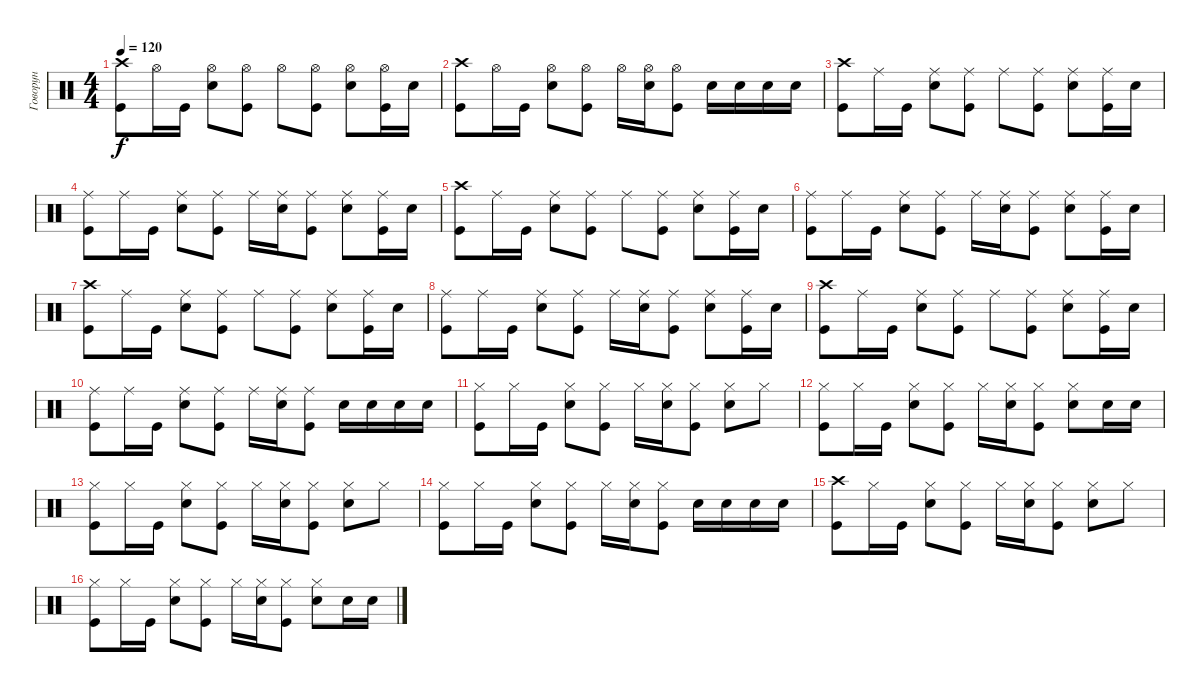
\track ("Говорун" "Говорун") {instrument percussion}
\staff {score}
\articulation defaults
\ts (4 4)
\tempo 120
\clef neutral
\ks c
("Crash high (hit)" "Kick (hit)").8{dy f} "Hi-Hat (open)".16 "Kick (hit)".16 ("Hi-Hat (open)" "Snare (hit) 2").8 ("Hi-Hat (open)" "Kick (hit)").8 "Hi-Hat (open)".8 ("Hi-Hat (open)" "Kick (hit)").8 ("Hi-Hat (open)" "Snare (hit) 2").8 ("Hi-Hat (open)" "Kick (hit)").16 "Snare (hit) 2".16 |
("Crash high (hit)" "Kick (hit)").8 "Hi-Hat (open)".16 "Kick (hit)".16 ("Hi-Hat (open)" "Snare (hit) 2").8 ("Hi-Hat (open)" "Kick (hit)").8 "Hi-Hat (open)".16 ("Hi-Hat (open)" "Snare (hit) 2").16 ("Hi-Hat (open)" "Kick (hit)").8 "Snare (hit) 2".16 "Snare (hit) 2".16 "Snare (hit) 2".16 "Snare (hit) 2".16 |
("Crash high (hit)" "Kick (hit)").8 "Ride (middle)".16 "Kick (hit)".16 ("Ride (middle)" "Snare (hit) 2").8 ("Ride (middle)" "Kick (hit)").8 "Ride (middle)".8 ("Ride (middle)" "Kick (hit)").8 ("Ride (middle)" "Snare (hit) 2").8 ("Ride (middle)" "Kick (hit)").16 "Snare (hit) 2".16 |
("Ride (middle)" "Kick (hit)").8 "Ride (middle)".16 "Kick (hit)".16 ("Ride (middle)" "Snare (hit) 2").8 ("Ride (middle)" "Kick (hit)").8 "Ride (middle)".16 ("Ride (middle)" "Snare (hit) 2").16 ("Ride (middle)" "Kick (hit)").8 ("Ride (middle)" "Snare (hit) 2").8 ("Ride (middle)" "Kick (hit)").16 "Snare (hit) 2".16 |
("Crash high (hit)" "Kick (hit)").8 "Ride (middle)".16 "Kick (hit)".16 ("Ride (middle)" "Snare (hit) 2").8 ("Ride (middle)" "Kick (hit)").8 "Ride (middle)".8 ("Ride (middle)" "Kick (hit)").8 ("Ride (middle)" "Snare (hit) 2").8 ("Ride (middle)" "Kick (hit)").16 "Snare (hit) 2".16 |
("Ride (middle)" "Kick (hit)").8 "Ride (middle)".16 "Kick (hit)".16 ("Ride (middle)" "Snare (hit) 2").8 ("Ride (middle)" "Kick (hit)").8 "Ride (middle)".16 ("Ride (middle)" "Snare (hit) 2").16 ("Ride (middle)" "Kick (hit)").8 ("Ride (middle)" "Snare (hit) 2").8 ("Ride (middle)" "Kick (hit)").16 "Snare (hit) 2".16 |
("Crash high (hit)" "Kick (hit)").8 "Ride (middle)".16 "Kick (hit)".16 ("Ride (middle)" "Snare (hit) 2").8 ("Ride (middle)" "Kick (hit)").8 "Ride (middle)".8 ("Ride (middle)" "Kick (hit)").8 ("Ride (middle)" "Snare (hit) 2").8 ("Ride (middle)" "Kick (hit)").16 "Snare (hit) 2".16 |
("Ride (middle)" "Kick (hit)").8 "Ride (middle)".16 "Kick (hit)".16 ("Ride (middle)" "Snare (hit) 2").8 ("Ride (middle)" "Kick (hit)").8 "Ride (middle)".16 ("Ride (middle)" "Snare (hit) 2").16 ("Ride (middle)" "Kick (hit)").8 ("Ride (middle)" "Snare (hit) 2").8 ("Ride (middle)" "Kick (hit)").16 "Snare (hit) 2".16 |
("Crash high (hit)" "Kick (hit)").8 "Ride (middle)".16 "Kick (hit)".16 ("Ride (middle)" "Snare (hit) 2").8 ("Ride (middle)" "Kick (hit)").8 "Ride (middle)".8 ("Ride (middle)" "Kick (hit)").8 ("Ride (middle)" "Snare (hit) 2").8 ("Ride (middle)" "Kick (hit)").16 "Snare (hit) 2".16 |
("Ride (middle)" "Kick (hit)").8 "Ride (middle)".16 "Kick (hit)".16 ("Ride (middle)" "Snare (hit) 2").8 ("Ride (middle)" "Kick (hit)").8 "Ride (middle)".16 ("Ride (middle)" "Snare (hit) 2").16 ("Ride (middle)" "Kick (hit)").8 "Snare (hit) 2".16 "Snare (hit) 2".16 "Snare (hit) 2".16 "Snare (hit) 2".16 |
("Hi-Hat (closed)" "Kick (hit)").8 "Hi-Hat (closed)".16 "Kick (hit)".16 ("Hi-Hat (closed)" "Snare (hit) 2").8 ("Hi-Hat (closed)" "Kick (hit)").8 "Hi-Hat (closed)".16 ("Hi-Hat (closed)" "Snare (hit) 2").16 ("Hi-Hat (closed)" "Kick (hit)").8 ("Hi-Hat (closed)" "Snare (hit) 2").8 "Hi-Hat (closed)".8 |
("Hi-Hat (closed)" "Kick (hit)").8 "Hi-Hat (closed)".16 "Kick (hit)".16 ("Hi-Hat (closed)" "Snare (hit) 2").8 ("Hi-Hat (closed)" "Kick (hit)").8 "Hi-Hat (closed)".16 ("Hi-Hat (closed)" "Snare (hit) 2").16 ("Hi-Hat (closed)" "Kick (hit)").8 ("Hi-Hat (closed)" "Snare (hit) 2").8 "Snare (hit) 2".16 "Snare (hit) 2".16 |
("Hi-Hat (closed)" "Kick (hit)").8 "Hi-Hat (closed)".16 "Kick (hit)".16 ("Hi-Hat (closed)" "Snare (hit) 2").8 ("Hi-Hat (closed)" "Kick (hit)").8 "Hi-Hat (closed)".16 ("Hi-Hat (closed)" "Snare (hit) 2").16 ("Hi-Hat (closed)" "Kick (hit)").8 ("Hi-Hat (closed)" "Snare (hit) 2").8 "Hi-Hat (closed)".8 |
("Hi-Hat (closed)" "Kick (hit)").8 "Hi-Hat (closed)".16 "Kick (hit)".16 ("Hi-Hat (closed)" "Snare (hit) 2").8 ("Hi-Hat (closed)" "Kick (hit)").8 "Hi-Hat (closed)".16 ("Hi-Hat (closed)" "Snare (hit) 2").16 ("Hi-Hat (closed)" "Kick (hit)").8 "Snare (hit) 2".16 "Snare (hit) 2".16 "Snare (hit) 2".16 "Snare (hit) 2".16 |
("Crash high (hit)" "Kick (hit)").8 "Hi-Hat (closed)".16 "Kick (hit)".16 ("Hi-Hat (closed)" "Snare (hit) 2").8 ("Hi-Hat (closed)" "Kick (hit)").8 "Hi-Hat (closed)".16 ("Hi-Hat (closed)" "Snare (hit) 2").16 ("Hi-Hat (closed)" "Kick (hit)").8 ("Hi-Hat (closed)" "Snare (hit) 2").8 "Hi-Hat (closed)".8 |
("Hi-Hat (closed)" "Kick (hit)").8 "Hi-Hat (closed)".16 "Kick (hit)".16 ("Hi-Hat (closed)" "Snare (hit) 2").8 ("Hi-Hat (closed)" "Kick (hit)").8 "Hi-Hat (closed)".16 ("Hi-Hat (closed)" "Snare (hit) 2").16 ("Hi-Hat (closed)" "Kick (hit)").8 ("Hi-Hat (closed)" "Snare (hit) 2").8 "Snare (hit) 2".16 "Snare (hit) 2".16
